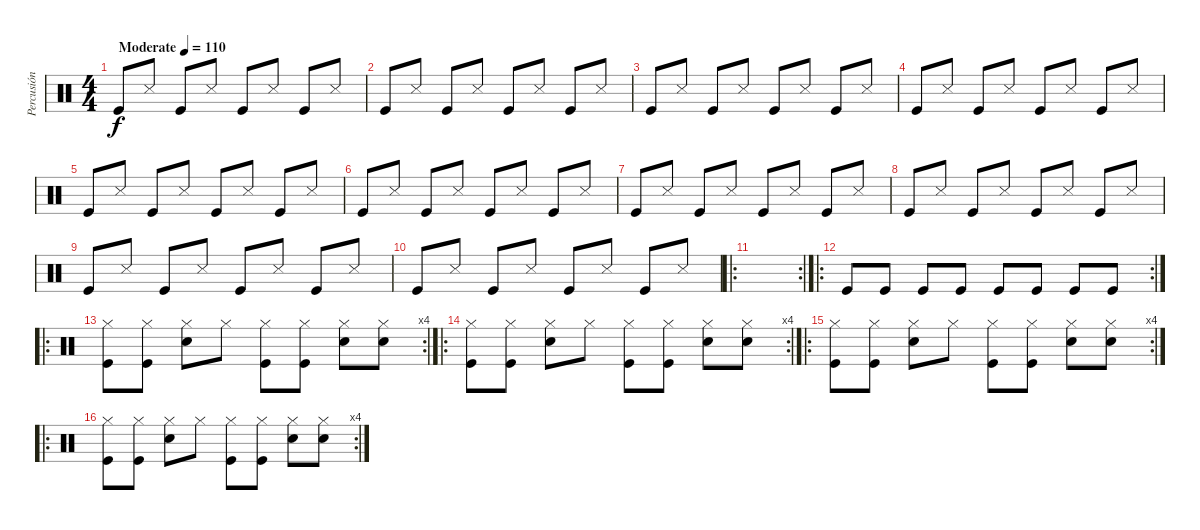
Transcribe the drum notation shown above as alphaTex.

\track ("Percusión" "Percusión") {instrument percussion}
\staff {score}
\articulation defaults
\ts (4 4)
\tempo (110 "Moderate")
\clef neutral
\ks c "Kick (hit)".8{dy f} "Snare (side stick) 3".8 "Kick (hit)".8 "Snare (side stick) 3".8 "Kick (hit)".8 "Snare (side stick) 3".8 "Kick (hit)".8 "Snare (side stick) 3".8
|
"Kick (hit)".8 "Snare (side stick) 3".8 "Kick (hit)".8 "Snare (side stick) 3".8 "Kick (hit)".8 "Snare (side stick) 3".8 "Kick (hit)".8 "Snare (side stick) 3".8 |
"Kick (hit)".8 "Snare (side stick) 3".8 "Kick (hit)".8 "Snare (side stick) 3".8 "Kick (hit)".8 "Snare (side stick) 3".8 "Kick (hit)".8 "Snare (side stick) 3".8 |
"Kick (hit)".8 "Snare (side stick) 3".8 "Kick (hit)".8 "Snare (side stick) 3".8 "Kick (hit)".8 "Snare (side stick) 3".8 "Kick (hit)".8 "Snare (side stick) 3".8 |
"Kick (hit)".8 "Snare (side stick) 3".8 "Kick (hit)".8 "Snare (side stick) 3".8 "Kick (hit)".8 "Snare (side stick) 3".8 "Kick (hit)".8 "Snare (side stick) 3".8 |
"Kick (hit)".8 "Snare (side stick) 3".8 "Kick (hit)".8 "Snare (side stick) 3".8 "Kick (hit)".8 "Snare (side stick) 3".8 "Kick (hit)".8 "Snare (side stick) 3".8 |
"Kick (hit)".8 "Snare (side stick) 3".8 "Kick (hit)".8 "Snare (side stick) 3".8 "Kick (hit)".8 "Snare (side stick) 3".8 "Kick (hit)".8 "Snare (side stick) 3".8 |
"Kick (hit)".8 "Snare (side stick) 3".8 "Kick (hit)".8 "Snare (side stick) 3".8 "Kick (hit)".8 "Snare (side stick) 3".8 "Kick (hit)".8 "Snare (side stick) 3".8 |
"Kick (hit)".8 "Snare (side stick) 3".8 "Kick (hit)".8 "Snare (side stick) 3".8 "Kick (hit)".8 "Snare (side stick) 3".8 "Kick (hit)".8 "Snare (side stick) 3".8 |
"Kick (hit)".8 "Snare (side stick) 3".8 "Kick (hit)".8 "Snare (side stick) 3".8 "Kick (hit)".8 "Snare (side stick) 3".8 "Kick (hit)".8 "Snare (side stick) 3".8 |
\ro
\rc 2
|
\ro
\rc 2 "Kick (hit)".8 "Kick (hit)".8 "Kick (hit)".8 "Kick (hit)".8 "Kick (hit)".8 "Kick (hit)".8 "Kick (hit)".8 "Kick (hit)".8
|
\ro
\rc 4
("Hi-Hat (closed)" "Kick (hit)").8 ("Hi-Hat (closed)" "Kick (hit)").8 ("Hi-Hat (closed)" "Electric Snare (hit)").8 "Hi-Hat (closed)".8 ("Hi-Hat (closed)" "Kick (hit)").8 ("Hi-Hat (closed)" "Kick (hit)").8 ("Hi-Hat (closed)" "Electric Snare (hit)").8 ("Hi-Hat (closed)" "Electric Snare (hit)").8 |
\ro
\rc 4
("Hi-Hat (closed)" "Kick (hit)").8 ("Hi-Hat (closed)" "Kick (hit)").8 ("Hi-Hat (closed)" "Electric Snare (hit)").8 "Hi-Hat (closed)".8 ("Hi-Hat (closed)" "Kick (hit)").8 ("Hi-Hat (closed)" "Kick (hit)").8 ("Hi-Hat (closed)" "Electric Snare (hit)").8 ("Hi-Hat (closed)" "Electric Snare (hit)").8 |
\ro
\rc 4
("Hi-Hat (closed)" "Kick (hit)").8 ("Hi-Hat (closed)" "Kick (hit)").8 ("Hi-Hat (closed)" "Electric Snare (hit)").8 "Hi-Hat (closed)".8 ("Hi-Hat (closed)" "Kick (hit)").8 ("Hi-Hat (closed)" "Kick (hit)").8 ("Hi-Hat (closed)" "Electric Snare (hit)").8 ("Hi-Hat (closed)" "Electric Snare (hit)").8 |
\ro
\rc 4
("Hi-Hat (closed)" "Kick (hit)").8 ("Hi-Hat (closed)" "Kick (hit)").8 ("Hi-Hat (closed)" "Electric Snare (hit)").8 "Hi-Hat (closed)".8 ("Hi-Hat (closed)" "Kick (hit)").8 ("Hi-Hat (closed)" "Kick (hit)").8 ("Hi-Hat (closed)" "Electric Snare (hit)").8 ("Hi-Hat (closed)" "Electric Snare (hit)").8
